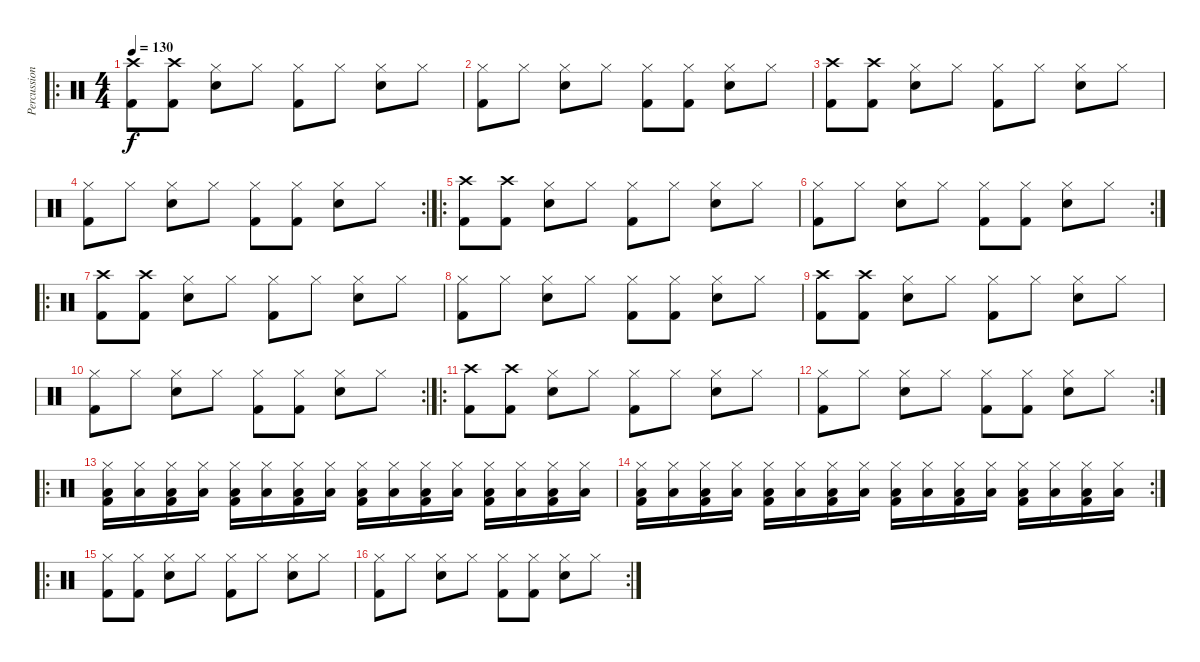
\track ("Percussion" "Percussion") {instrument percussion}
\staff {score}
\articulation defaults
\ro
\ts (4 4)
\tempo 130
\clef neutral
\ks c
("Crash high (hit)" "Kick (hit) 2").8{dy f} ("Crash high (hit)" "Kick (hit) 2").8 ("Hi-Hat (closed)" "Snare (hit) 2").8 "Hi-Hat (closed)".8 ("Hi-Hat (closed)" "Kick (hit) 2").8 "Hi-Hat (closed)".8 ("Hi-Hat (closed)" "Snare (hit) 2").8 "Hi-Hat (closed)".8 |
("Hi-Hat (closed)" "Kick (hit) 2").8 "Hi-Hat (closed)".8 ("Hi-Hat (closed)" "Electric Snare (hit)").8 "Hi-Hat (closed)".8 ("Hi-Hat (closed)" "Kick (hit) 2").8 ("Hi-Hat (closed)" "Kick (hit) 2").8 ("Hi-Hat (closed)" "Electric Snare (hit)").8 "Hi-Hat (closed)".8 |
("Crash high (hit)" "Kick (hit) 2").8 ("Crash high (hit)" "Kick (hit) 2").8 ("Hi-Hat (closed)" "Snare (hit) 2").8 "Hi-Hat (closed)".8 ("Hi-Hat (closed)" "Kick (hit) 2").8 "Hi-Hat (closed)".8 ("Hi-Hat (closed)" "Snare (hit) 2").8 "Hi-Hat (closed)".8 |
\rc 2
("Hi-Hat (closed)" "Kick (hit) 2").8 "Hi-Hat (closed)".8 ("Hi-Hat (closed)" "Electric Snare (hit)").8 "Hi-Hat (closed)".8 ("Hi-Hat (closed)" "Kick (hit) 2").8 ("Hi-Hat (closed)" "Kick (hit) 2").8 ("Hi-Hat (closed)" "Electric Snare (hit)").8 "Hi-Hat (closed)".8 |
\ro
("Crash high (hit)" "Kick (hit) 2").8 ("Crash high (hit)" "Kick (hit) 2").8 ("Hi-Hat (closed)" "Snare (hit) 2").8 "Hi-Hat (closed)".8 ("Hi-Hat (closed)" "Kick (hit) 2").8 "Hi-Hat (closed)".8 ("Hi-Hat (closed)" "Snare (hit) 2").8 "Hi-Hat (closed)".8 |
\rc 2
("Hi-Hat (closed)" "Kick (hit) 2").8 "Hi-Hat (closed)".8 ("Hi-Hat (closed)" "Electric Snare (hit)").8 "Hi-Hat (closed)".8 ("Hi-Hat (closed)" "Kick (hit) 2").8 ("Hi-Hat (closed)" "Kick (hit) 2").8 ("Hi-Hat (closed)" "Electric Snare (hit)").8 "Hi-Hat (closed)".8 |
\ro
("Crash high (hit)" "Kick (hit) 2").8 ("Crash high (hit)" "Kick (hit) 2").8 ("Hi-Hat (closed)" "Snare (hit) 2").8 "Hi-Hat (closed)".8 ("Hi-Hat (closed)" "Kick (hit) 2").8 "Hi-Hat (closed)".8 ("Hi-Hat (closed)" "Snare (hit) 2").8 "Hi-Hat (closed)".8 |
("Hi-Hat (closed)" "Kick (hit) 2").8 "Hi-Hat (closed)".8 ("Hi-Hat (closed)" "Electric Snare (hit)").8 "Hi-Hat (closed)".8 ("Hi-Hat (closed)" "Kick (hit) 2").8 ("Hi-Hat (closed)" "Kick (hit) 2").8 ("Hi-Hat (closed)" "Electric Snare (hit)").8 "Hi-Hat (closed)".8 |
("Crash high (hit)" "Kick (hit) 2").8 ("Crash high (hit)" "Kick (hit) 2").8 ("Hi-Hat (closed)" "Snare (hit) 2").8 "Hi-Hat (closed)".8 ("Hi-Hat (closed)" "Kick (hit) 2").8 "Hi-Hat (closed)".8 ("Hi-Hat (closed)" "Snare (hit) 2").8 "Hi-Hat (closed)".8 |
\rc 2
("Hi-Hat (closed)" "Kick (hit) 2").8 "Hi-Hat (closed)".8 ("Hi-Hat (closed)" "Electric Snare (hit)").8 "Hi-Hat (closed)".8 ("Hi-Hat (closed)" "Kick (hit) 2").8 ("Hi-Hat (closed)" "Kick (hit) 2").8 ("Hi-Hat (closed)" "Electric Snare (hit)").8 "Hi-Hat (closed)".8 |
\ro
("Crash high (hit)" "Kick (hit) 2").8 ("Crash high (hit)" "Kick (hit) 2").8 ("Hi-Hat (closed)" "Snare (hit) 2").8 "Hi-Hat (closed)".8 ("Hi-Hat (closed)" "Kick (hit) 2").8 "Hi-Hat (closed)".8 ("Hi-Hat (closed)" "Snare (hit) 2").8 "Hi-Hat (closed)".8 |
\rc 2
("Hi-Hat (closed)" "Kick (hit) 2").8 "Hi-Hat (closed)".8 ("Hi-Hat (closed)" "Electric Snare (hit)").8 "Hi-Hat (closed)".8 ("Hi-Hat (closed)" "Kick (hit) 2").8 ("Hi-Hat (closed)" "Kick (hit) 2").8 ("Hi-Hat (closed)" "Electric Snare (hit)").8 "Hi-Hat (closed)".8 |
\ro
("Hi-Hat (closed)" "Kick (hit) 2" "Low Floor Tom (hit)").16 ("Hi-Hat (closed)" "Low Floor Tom (hit)").16 ("Hi-Hat (closed)" "Kick (hit) 2" "Low Floor Tom (hit)").16 ("Hi-Hat (closed)" "Low Floor Tom (hit)").16 ("Hi-Hat (closed)" "Kick (hit) 2" "Low Floor Tom (hit)").16 ("Hi-Hat (closed)" "Low Floor Tom (hit)").16 ("Hi-Hat (closed)" "Kick (hit) 2" "Low Floor Tom (hit)").16 ("Hi-Hat (closed)" "Low Floor Tom (hit)").16 ("Hi-Hat (closed)" "Kick (hit) 2" "Low Floor Tom (hit)").16 ("Hi-Hat (closed)" "Low Floor Tom (hit)").16 ("Hi-Hat (closed)" "Kick (hit) 2" "Low Floor Tom (hit)").16 ("Hi-Hat (closed)" "Low Floor Tom (hit)").16 ("Hi-Hat (closed)" "Kick (hit) 2" "Low Floor Tom (hit)").16 ("Hi-Hat (closed)" "Low Floor Tom (hit)").16 ("Hi-Hat (closed)" "Kick (hit) 2" "Low Floor Tom (hit)").16 ("Hi-Hat (closed)" "Low Floor Tom (hit)").16 |
\rc 2
("Hi-Hat (closed)" "Kick (hit) 2" "Low Floor Tom (hit)").16 ("Hi-Hat (closed)" "Low Floor Tom (hit)").16 ("Hi-Hat (closed)" "Kick (hit) 2" "Low Floor Tom (hit)").16 ("Hi-Hat (closed)" "Low Floor Tom (hit)").16 ("Hi-Hat (closed)" "Kick (hit) 2" "Low Floor Tom (hit)").16 ("Hi-Hat (closed)" "Low Floor Tom (hit)").16 ("Hi-Hat (closed)" "Kick (hit) 2" "Low Floor Tom (hit)").16 ("Hi-Hat (closed)" "Low Floor Tom (hit)").16 ("Hi-Hat (closed)" "Kick (hit) 2" "Low Floor Tom (hit)").16 ("Hi-Hat (closed)" "Low Floor Tom (hit)").16 ("Hi-Hat (closed)" "Kick (hit) 2" "Low Floor Tom (hit)").16 ("Hi-Hat (closed)" "Low Floor Tom (hit)").16 ("Hi-Hat (closed)" "Kick (hit) 2" "Low Floor Tom (hit)").16 ("Hi-Hat (closed)" "Low Floor Tom (hit)").16 ("Hi-Hat (closed)" "Kick (hit) 2" "Low Floor Tom (hit)").16 ("Hi-Hat (closed)" "Low Floor Tom (hit)").16 |
\ro
("Hi-Hat (closed)" "Kick (hit) 2").8 ("Hi-Hat (closed)" "Kick (hit) 2").8 ("Hi-Hat (closed)" "Snare (hit) 2").8 "Hi-Hat (closed)".8 ("Hi-Hat (closed)" "Kick (hit) 2").8 "Hi-Hat (closed)".8 ("Hi-Hat (closed)" "Snare (hit) 2").8 "Hi-Hat (closed)".8 |
\rc 2
("Hi-Hat (closed)" "Kick (hit) 2").8 "Hi-Hat (closed)".8 ("Hi-Hat (closed)" "Electric Snare (hit)").8 "Hi-Hat (closed)".8 ("Hi-Hat (closed)" "Kick (hit) 2").8 ("Hi-Hat (closed)" "Kick (hit) 2").8 ("Hi-Hat (closed)" "Electric Snare (hit)").8 "Hi-Hat (closed)".8
